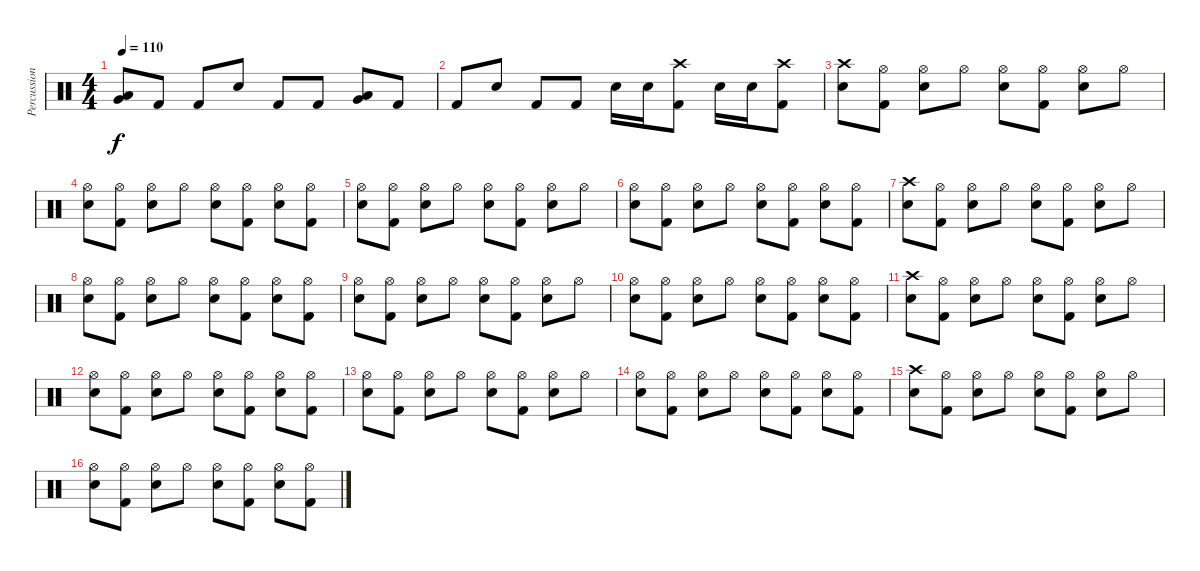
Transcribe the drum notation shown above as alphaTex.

\track ("Percussion" "Percussion") {instrument percussion}
\staff {score}
\articulation defaults
\ts (4 4)
\tempo 110
\clef neutral
\ks c
("Low Tom (hit)" "Very Low Tom (hit)").8{dy f} "Kick (hit) 2".8 "Kick (hit) 2".8 "Snare (hit) 2".8 "Kick (hit) 2".8 "Kick (hit) 2".8 ("Low Tom (hit)" "Very Low Tom (hit)").8 "Kick (hit) 2".8 |
"Kick (hit) 2".8 "Snare (hit) 2".8 "Kick (hit) 2".8 "Kick (hit) 2".8 "Snare (hit) 2".16 "Snare (hit) 2".16 ("Crash high (hit)" "Kick (hit) 2").8 "Snare (hit) 2".16 "Snare (hit) 2".16 ("Crash high (hit)" "Kick (hit) 2").8 |
("Crash high (hit)" "Snare (hit) 2").8 ("Hi-Hat (open)" "Kick (hit) 2").8 ("Hi-Hat (open)" "Snare (hit) 2").8 "Hi-Hat (open)".8 ("Hi-Hat (open)" "Snare (hit) 2").8 ("Hi-Hat (open)" "Kick (hit) 2").8 ("Hi-Hat (open)" "Snare (hit) 2").8 "Hi-Hat (open)".8 |
("Hi-Hat (open)" "Snare (hit) 2").8 ("Hi-Hat (open)" "Kick (hit) 2").8 ("Hi-Hat (open)" "Snare (hit) 2").8 "Hi-Hat (open)".8 ("Hi-Hat (open)" "Snare (hit) 2").8 ("Hi-Hat (open)" "Kick (hit) 2").8 ("Hi-Hat (open)" "Snare (hit) 2").8 ("Hi-Hat (open)" "Kick (hit) 2").8 |
("Hi-Hat (open)" "Snare (hit) 2").8 ("Hi-Hat (open)" "Kick (hit) 2").8 ("Hi-Hat (open)" "Snare (hit) 2").8 "Hi-Hat (open)".8 ("Hi-Hat (open)" "Snare (hit) 2").8 ("Hi-Hat (open)" "Kick (hit) 2").8 ("Hi-Hat (open)" "Snare (hit) 2").8 "Hi-Hat (open)".8 |
("Hi-Hat (open)" "Snare (hit) 2").8 ("Hi-Hat (open)" "Kick (hit) 2").8 ("Hi-Hat (open)" "Snare (hit) 2").8 "Hi-Hat (open)".8 ("Hi-Hat (open)" "Snare (hit) 2").8 ("Hi-Hat (open)" "Kick (hit) 2").8 ("Hi-Hat (open)" "Snare (hit) 2").8 ("Hi-Hat (open)" "Kick (hit) 2").8 |
("Crash high (hit)" "Snare (hit) 2").8 ("Hi-Hat (open)" "Kick (hit) 2").8 ("Hi-Hat (open)" "Snare (hit) 2").8 "Hi-Hat (open)".8 ("Hi-Hat (open)" "Snare (hit) 2").8 ("Hi-Hat (open)" "Kick (hit) 2").8 ("Hi-Hat (open)" "Snare (hit) 2").8 "Hi-Hat (open)".8 |
("Hi-Hat (open)" "Snare (hit) 2").8 ("Hi-Hat (open)" "Kick (hit) 2").8 ("Hi-Hat (open)" "Snare (hit) 2").8 "Hi-Hat (open)".8 ("Hi-Hat (open)" "Snare (hit) 2").8 ("Hi-Hat (open)" "Kick (hit) 2").8 ("Hi-Hat (open)" "Snare (hit) 2").8 ("Hi-Hat (open)" "Kick (hit) 2").8 |
("Hi-Hat (open)" "Snare (hit) 2").8 ("Hi-Hat (open)" "Kick (hit) 2").8 ("Hi-Hat (open)" "Snare (hit) 2").8 "Hi-Hat (open)".8 ("Hi-Hat (open)" "Snare (hit) 2").8 ("Hi-Hat (open)" "Kick (hit) 2").8 ("Hi-Hat (open)" "Snare (hit) 2").8 "Hi-Hat (open)".8 |
("Hi-Hat (open)" "Snare (hit) 2").8 ("Hi-Hat (open)" "Kick (hit) 2").8 ("Hi-Hat (open)" "Snare (hit) 2").8 "Hi-Hat (open)".8 ("Hi-Hat (open)" "Snare (hit) 2").8 ("Hi-Hat (open)" "Kick (hit) 2").8 ("Hi-Hat (open)" "Snare (hit) 2").8 ("Hi-Hat (open)" "Kick (hit) 2").8 |
("Crash high (hit)" "Snare (hit) 2").8 ("Hi-Hat (open)" "Kick (hit) 2").8 ("Hi-Hat (open)" "Snare (hit) 2").8 "Hi-Hat (open)".8 ("Hi-Hat (open)" "Snare (hit) 2").8 ("Hi-Hat (open)" "Kick (hit) 2").8 ("Hi-Hat (open)" "Snare (hit) 2").8 "Hi-Hat (open)".8 |
("Hi-Hat (open)" "Snare (hit) 2").8 ("Hi-Hat (open)" "Kick (hit) 2").8 ("Hi-Hat (open)" "Snare (hit) 2").8 "Hi-Hat (open)".8 ("Hi-Hat (open)" "Snare (hit) 2").8 ("Hi-Hat (open)" "Kick (hit) 2").8 ("Hi-Hat (open)" "Snare (hit) 2").8 ("Hi-Hat (open)" "Kick (hit) 2").8 |
("Hi-Hat (open)" "Snare (hit) 2").8 ("Hi-Hat (open)" "Kick (hit) 2").8 ("Hi-Hat (open)" "Snare (hit) 2").8 "Hi-Hat (open)".8 ("Hi-Hat (open)" "Snare (hit) 2").8 ("Hi-Hat (open)" "Kick (hit) 2").8 ("Hi-Hat (open)" "Snare (hit) 2").8 "Hi-Hat (open)".8 |
("Hi-Hat (open)" "Snare (hit) 2").8 ("Hi-Hat (open)" "Kick (hit) 2").8 ("Hi-Hat (open)" "Snare (hit) 2").8 "Hi-Hat (open)".8 ("Hi-Hat (open)" "Snare (hit) 2").8 ("Hi-Hat (open)" "Kick (hit) 2").8 ("Hi-Hat (open)" "Snare (hit) 2").8 ("Hi-Hat (open)" "Kick (hit) 2").8 |
("Crash high (hit)" "Snare (hit) 2").8 ("Hi-Hat (open)" "Kick (hit) 2").8 ("Hi-Hat (open)" "Snare (hit) 2").8 "Hi-Hat (open)".8 ("Hi-Hat (open)" "Snare (hit) 2").8 ("Hi-Hat (open)" "Kick (hit) 2").8 ("Hi-Hat (open)" "Snare (hit) 2").8 "Hi-Hat (open)".8 |
("Hi-Hat (open)" "Snare (hit) 2").8 ("Hi-Hat (open)" "Kick (hit) 2").8 ("Hi-Hat (open)" "Snare (hit) 2").8 "Hi-Hat (open)".8 ("Hi-Hat (open)" "Snare (hit) 2").8 ("Hi-Hat (open)" "Kick (hit) 2").8 ("Hi-Hat (open)" "Snare (hit) 2").8 ("Hi-Hat (open)" "Kick (hit) 2").8
